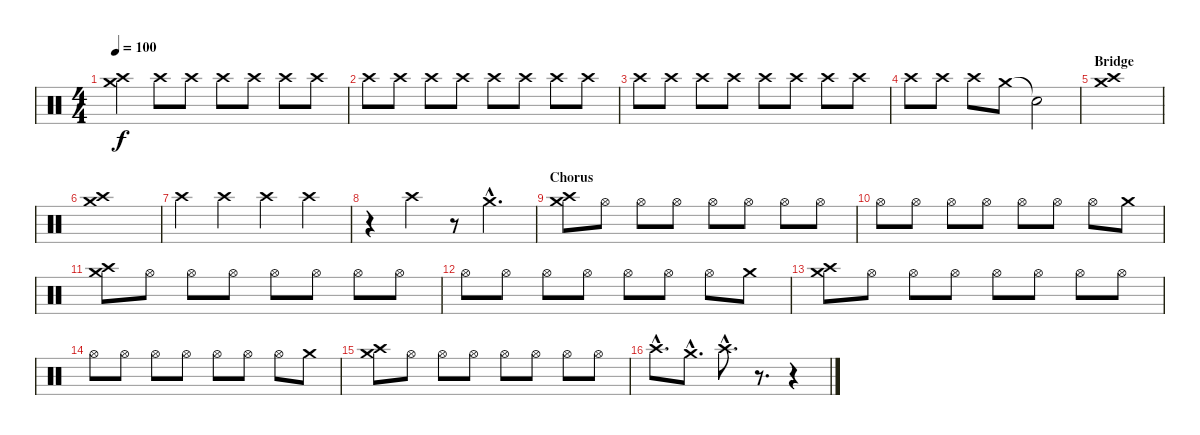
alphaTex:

\track "" {instrument percussion}
\staff {score}
\articulation defaults
\ts (4 4)
\tempo 100
\clef neutral
\ks c
("Crash medium (hit)" "Crash high (hit)").4{dy f} "Crash high (hit)".8 "Crash high (hit)".8 "Crash high (hit)".8 "Crash high (hit)".8 "Crash high (hit)".8 "Crash high (hit)".8 |
"Crash high (hit)".8 "Crash high (hit)".8 "Crash high (hit)".8 "Crash high (hit)".8 "Crash high (hit)".8 "Crash high (hit)".8 "Crash high (hit)".8 "Crash high (hit)".8 |
"Crash high (hit)".8 "Crash high (hit)".8 "Crash high (hit)".8 "Crash high (hit)".8 "Crash high (hit)".8 "Crash high (hit)".8 "Crash high (hit)".8 "Crash high (hit)".8 |
"Crash high (hit)".8 "Crash high (hit)".8 "Crash high (hit)".8 "Crash medium (hit)".8 "Snare (hit)"{t}.2 |
\section ("" "Bridge")
("Crash medium (hit)" "Crash high (hit)").1 |
("Crash medium (hit)" "Crash high (hit)").1 |
"Crash high (hit)".4 "Crash high (hit)".4 "Crash high (hit)".4 "Crash high (hit)".4 |
r.4 "Crash high (hit)".4 r.8 "Crash medium (hit)"{hac}.4{d} |
\section ("" "Chorus")
("Crash medium (hit)" "Crash high (hit)").8 "Hi-Hat (open)".8 "Hi-Hat (open)".8 "Hi-Hat (open)".8 "Hi-Hat (open)".8 "Hi-Hat (open)".8 "Hi-Hat (open)".8 "Hi-Hat (open)".8 |
"Hi-Hat (open)".8 "Hi-Hat (open)".8 "Hi-Hat (open)".8 "Hi-Hat (open)".8 "Hi-Hat (open)".8 "Hi-Hat (open)".8 "Hi-Hat (open)".8 "Crash medium (hit)".8 |
("Crash medium (hit)" "Crash high (hit)").8 "Hi-Hat (open)".8 "Hi-Hat (open)".8 "Hi-Hat (open)".8 "Hi-Hat (open)".8 "Hi-Hat (open)".8 "Hi-Hat (open)".8 "Hi-Hat (open)".8 |
"Hi-Hat (open)".8 "Hi-Hat (open)".8 "Hi-Hat (open)".8 "Hi-Hat (open)".8 "Hi-Hat (open)".8 "Hi-Hat (open)".8 "Hi-Hat (open)".8 "Crash medium (hit)".8 |
("Crash medium (hit)" "Crash high (hit)").8 "Hi-Hat (open)".8 "Hi-Hat (open)".8 "Hi-Hat (open)".8 "Hi-Hat (open)".8 "Hi-Hat (open)".8 "Hi-Hat (open)".8 "Hi-Hat (open)".8 |
"Hi-Hat (open)".8 "Hi-Hat (open)".8 "Hi-Hat (open)".8 "Hi-Hat (open)".8 "Hi-Hat (open)".8 "Hi-Hat (open)".8 "Hi-Hat (open)".8 "Crash medium (hit)".8 |
("Crash medium (hit)" "Crash high (hit)").8 "Hi-Hat (open)".8 "Hi-Hat (open)".8 "Hi-Hat (open)".8 "Hi-Hat (open)".8 "Hi-Hat (open)".8 "Hi-Hat (open)".8 "Hi-Hat (open)".8 |
"Crash high (hit)"{hac}.8{d} "Crash medium (hit)"{hac}.8{d} "Crash high (hit)"{hac}.8{d} r.8{d} r.4
